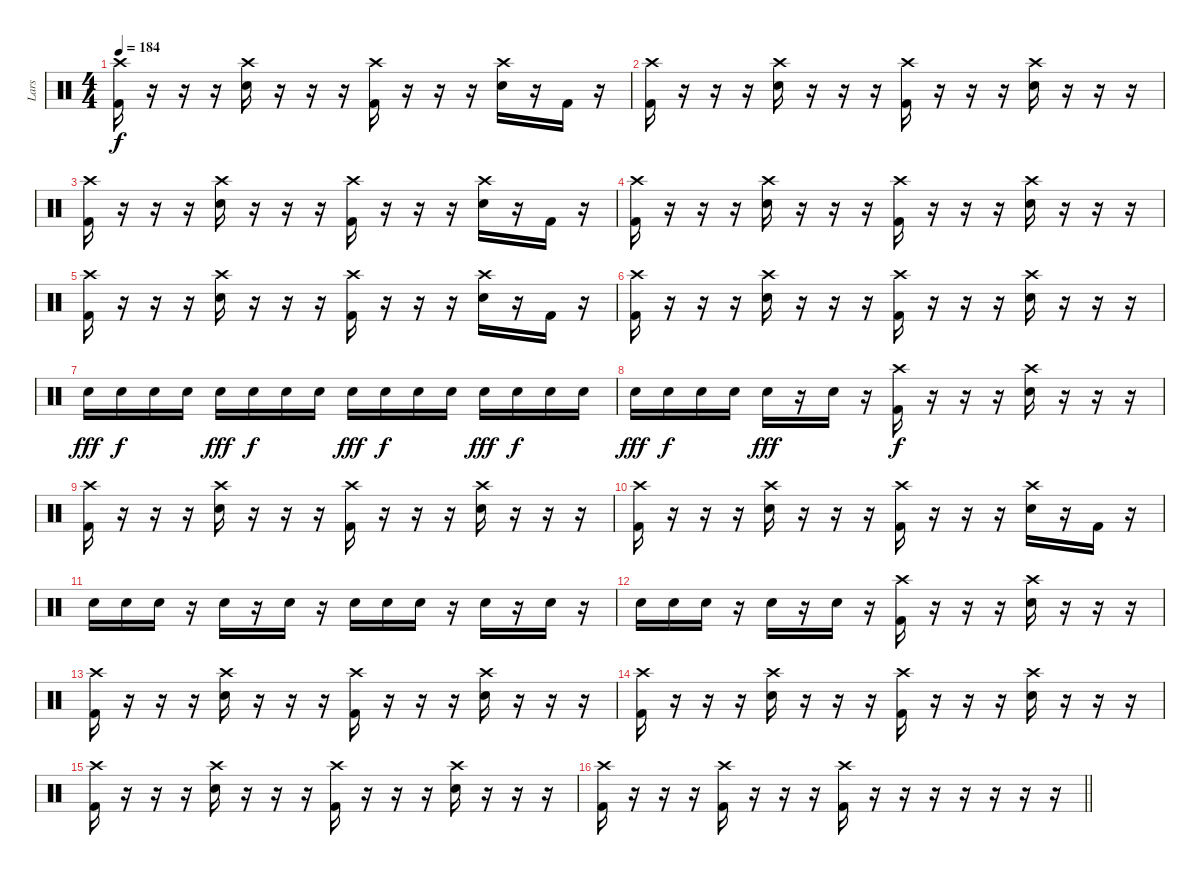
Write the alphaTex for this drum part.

\track ("Lars" "Lars") {instrument percussion}
\staff {score}
\articulation defaults
\ts (4 4)
\tempo 184
\clef neutral
\ks c
("Crash high (hit)" "Kick (hit) 2").16{dy f} r.16 r.16 r.16 ("Crash high (hit)" "Electric Snare (hit)").16 r.16 r.16 r.16 ("Crash high (hit)" "Kick (hit) 2").16 r.16 r.16 r.16 ("Crash high (hit)" "Electric Snare (hit)").16 r.16 "Kick (hit) 2".16 r.16 |
("Crash high (hit)" "Kick (hit) 2").16 r.16 r.16 r.16 ("Crash high (hit)" "Electric Snare (hit)").16 r.16 r.16 r.16 ("Crash high (hit)" "Kick (hit) 2").16 r.16 r.16 r.16 ("Crash high (hit)" "Electric Snare (hit)").16 r.16 r.16 r.16 |
("Crash high (hit)" "Kick (hit) 2").16 r.16 r.16 r.16 ("Crash high (hit)" "Electric Snare (hit)").16 r.16 r.16 r.16 ("Crash high (hit)" "Kick (hit) 2").16 r.16 r.16 r.16 ("Crash high (hit)" "Electric Snare (hit)").16 r.16 "Kick (hit) 2".16 r.16 |
("Crash high (hit)" "Kick (hit) 2").16 r.16 r.16 r.16 ("Crash high (hit)" "Electric Snare (hit)").16 r.16 r.16 r.16 ("Crash high (hit)" "Kick (hit) 2").16 r.16 r.16 r.16 ("Crash high (hit)" "Electric Snare (hit)").16 r.16 r.16 r.16 |
("Crash high (hit)" "Kick (hit) 2").16 r.16 r.16 r.16 ("Crash high (hit)" "Electric Snare (hit)").16 r.16 r.16 r.16 ("Crash high (hit)" "Kick (hit) 2").16 r.16 r.16 r.16 ("Crash high (hit)" "Electric Snare (hit)").16 r.16 "Kick (hit) 2".16 r.16 |
("Crash high (hit)" "Kick (hit) 2").16 r.16 r.16 r.16 ("Crash high (hit)" "Electric Snare (hit)").16 r.16 r.16 r.16 ("Crash high (hit)" "Kick (hit) 2").16 r.16 r.16 r.16 ("Crash high (hit)" "Electric Snare (hit)").16 r.16 r.16 r.16 |
"Electric Snare (hit)".16{dy fff} "Electric Snare (hit)".16{dy f} "Electric Snare (hit)".16 "Electric Snare (hit)".16 "Electric Snare (hit)".16{dy fff} "Electric Snare (hit)".16{dy f} "Electric Snare (hit)".16 "Electric Snare (hit)".16 "Electric Snare (hit)".16{dy fff} "Electric Snare (hit)".16{dy f} "Electric Snare (hit)".16 "Electric Snare (hit)".16 "Electric Snare (hit)".16{dy fff} "Electric Snare (hit)".16{dy f} "Electric Snare (hit)".16 "Electric Snare (hit)".16 |
"Electric Snare (hit)".16{dy fff} "Electric Snare (hit)".16{dy f} "Electric Snare (hit)".16 "Electric Snare (hit)".16 "Electric Snare (hit)".16{dy fff} r.16 "Electric Snare (hit)".16 r.16 ("Crash high (hit)" "Kick (hit) 2").16{dy f} r.16 r.16 r.16 ("Crash high (hit)" "Electric Snare (hit)").16 r.16 r.16 r.16 |
("Crash high (hit)" "Kick (hit) 2").16 r.16 r.16 r.16 ("Crash high (hit)" "Electric Snare (hit)").16 r.16 r.16 r.16 ("Crash high (hit)" "Kick (hit) 2").16 r.16 r.16 r.16 ("Crash high (hit)" "Electric Snare (hit)").16 r.16 r.16 r.16 |
("Crash high (hit)" "Kick (hit) 2").16 r.16 r.16 r.16 ("Crash high (hit)" "Electric Snare (hit)").16 r.16 r.16 r.16 ("Crash high (hit)" "Kick (hit) 2").16 r.16 r.16 r.16 ("Crash high (hit)" "Electric Snare (hit)").16 r.16 "Kick (hit) 2".16 r.16 |
"Electric Snare (hit)".16 "Electric Snare (hit)".16 "Electric Snare (hit)".16 r.16 "Electric Snare (hit)".16 r.16 "Electric Snare (hit)".16 r.16 "Electric Snare (hit)".16 "Electric Snare (hit)".16 "Electric Snare (hit)".16 r.16 "Electric Snare (hit)".16 r.16 "Electric Snare (hit)".16 r.16 |
"Electric Snare (hit)".16 "Electric Snare (hit)".16 "Electric Snare (hit)".16 r.16 "Electric Snare (hit)".16 r.16 "Electric Snare (hit)".16 r.16 ("Crash high (hit)" "Kick (hit) 2").16 r.16 r.16 r.16 ("Crash high (hit)" "Electric Snare (hit)").16 r.16 r.16 r.16 |
("Crash high (hit)" "Kick (hit) 2").16 r.16 r.16 r.16 ("Crash high (hit)" "Electric Snare (hit)").16 r.16 r.16 r.16 ("Crash high (hit)" "Kick (hit) 2").16 r.16 r.16 r.16 ("Crash high (hit)" "Electric Snare (hit)").16 r.16 r.16 r.16 |
("Crash high (hit)" "Kick (hit) 2").16 r.16 r.16 r.16 ("Crash high (hit)" "Electric Snare (hit)").16 r.16 r.16 r.16 ("Crash high (hit)" "Kick (hit) 2").16 r.16 r.16 r.16 ("Crash high (hit)" "Electric Snare (hit)").16 r.16 r.16 r.16 |
("Crash high (hit)" "Kick (hit) 2").16 r.16 r.16 r.16 ("Crash high (hit)" "Electric Snare (hit)").16 r.16 r.16 r.16 ("Crash high (hit)" "Kick (hit) 2").16 r.16 r.16 r.16 ("Crash high (hit)" "Electric Snare (hit)").16 r.16 r.16 r.16 |
\barLineRight lightlight
("Crash high (hit)" "Kick (hit) 2").16 r.16 r.16 r.16{volume 0} ("Crash high (hit)" "Kick (hit) 2").16{volume 10} r.16 r.16 r.16{volume 0} ("Crash high (hit)" "Kick (hit) 2").16{volume 10} r.16 r.16 r.16{volume 0} r.16 r.16 r.16 r.16
